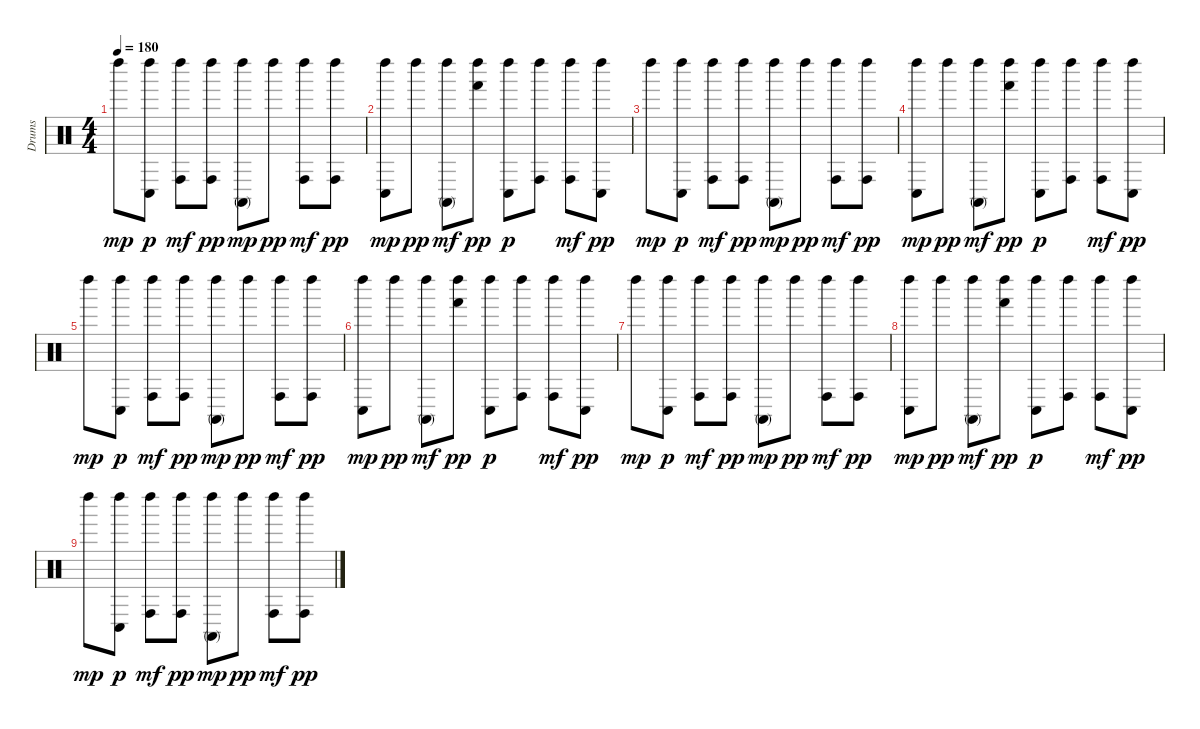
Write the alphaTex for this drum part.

\track ("Drums" "Drums") {instrument percussion}
\staff {score}
\articulation defaults
\ts (4 4)
\tempo 180
\clef neutral
\ks c "Left Maraca (hit)".8{dy mp}
("Left Maraca (hit)" "Conga low (hit)").8{dy p} ("Left Maraca (hit)" "Conga high (hit)").8{dy mf} ("Left Maraca (hit)" "Conga high (hit)").8{dy pp} ("Left Maraca (hit)" "Conga high (mute)").8{dy mp} "Left Maraca (hit)".8{dy pp} ("Left Maraca (hit)" "Conga high (hit)").8{dy mf} ("Left Maraca (hit)" "Conga high (hit)").8{dy pp} |
("Left Maraca (hit)" "Conga low (hit)").8{dy mp} "Left Maraca (hit)".8{dy pp} ("Left Maraca (hit)" "Conga high (mute)").8{dy mf} ("Left Maraca (hit)" "Hand (hit)").8{dy pp} ("Left Maraca (hit)" "Conga low (hit)").8{dy p} ("Left Maraca (hit)" "Conga high (hit)").8 ("Left Maraca (hit)" "Conga high (hit)").8{dy mf} ("Left Maraca (hit)" "Conga low (hit)").8{dy pp} |
"Left Maraca (hit)".8{dy mp} ("Left Maraca (hit)" "Conga low (hit)").8{dy p} ("Left Maraca (hit)" "Conga high (hit)").8{dy mf} ("Left Maraca (hit)" "Conga high (hit)").8{dy pp} ("Left Maraca (hit)" "Conga high (mute)").8{dy mp} "Left Maraca (hit)".8{dy pp} ("Left Maraca (hit)" "Conga high (hit)").8{dy mf} ("Left Maraca (hit)" "Conga high (hit)").8{dy pp} |
("Left Maraca (hit)" "Conga low (hit)").8{dy mp} "Left Maraca (hit)".8{dy pp} ("Left Maraca (hit)" "Conga high (mute)").8{dy mf} ("Left Maraca (hit)" "Hand (hit)").8{dy pp} ("Left Maraca (hit)" "Conga low (hit)").8{dy p} ("Left Maraca (hit)" "Conga high (hit)").8 ("Left Maraca (hit)" "Conga high (hit)").8{dy mf} ("Left Maraca (hit)" "Conga low (hit)").8{dy pp} |
"Left Maraca (hit)".8{dy mp} ("Left Maraca (hit)" "Conga low (hit)").8{dy p} ("Left Maraca (hit)" "Conga high (hit)").8{dy mf} ("Left Maraca (hit)" "Conga high (hit)").8{dy pp} ("Left Maraca (hit)" "Conga high (mute)").8{dy mp} "Left Maraca (hit)".8{dy pp} ("Left Maraca (hit)" "Conga high (hit)").8{dy mf} ("Left Maraca (hit)" "Conga high (hit)").8{dy pp} |
("Left Maraca (hit)" "Conga low (hit)").8{dy mp} "Left Maraca (hit)".8{dy pp} ("Left Maraca (hit)" "Conga high (mute)").8{dy mf} ("Left Maraca (hit)" "Hand (hit)").8{dy pp} ("Left Maraca (hit)" "Conga low (hit)").8{dy p} ("Left Maraca (hit)" "Conga high (hit)").8 ("Left Maraca (hit)" "Conga high (hit)").8{dy mf} ("Left Maraca (hit)" "Conga low (hit)").8{dy pp} |
"Left Maraca (hit)".8{dy mp} ("Left Maraca (hit)" "Conga low (hit)").8{dy p} ("Left Maraca (hit)" "Conga high (hit)").8{dy mf} ("Left Maraca (hit)" "Conga high (hit)").8{dy pp} ("Left Maraca (hit)" "Conga high (mute)").8{dy mp} "Left Maraca (hit)".8{dy pp} ("Left Maraca (hit)" "Conga high (hit)").8{dy mf} ("Left Maraca (hit)" "Conga high (hit)").8{dy pp} |
("Left Maraca (hit)" "Conga low (hit)").8{dy mp} "Left Maraca (hit)".8{dy pp} ("Left Maraca (hit)" "Conga high (mute)").8{dy mf} ("Left Maraca (hit)" "Hand (hit)").8{dy pp} ("Left Maraca (hit)" "Conga low (hit)").8{dy p} ("Left Maraca (hit)" "Conga high (hit)").8 ("Left Maraca (hit)" "Conga high (hit)").8{dy mf} ("Left Maraca (hit)" "Conga low (hit)").8{dy pp} |
"Left Maraca (hit)".8{dy mp} ("Left Maraca (hit)" "Conga low (hit)").8{dy p} ("Left Maraca (hit)" "Conga high (hit)").8{dy mf} ("Left Maraca (hit)" "Conga high (hit)").8{dy pp} ("Left Maraca (hit)" "Conga high (mute)").8{dy mp} "Left Maraca (hit)".8{dy pp} ("Left Maraca (hit)" "Conga high (hit)").8{dy mf} ("Left Maraca (hit)" "Conga high (hit)").8{dy pp}
